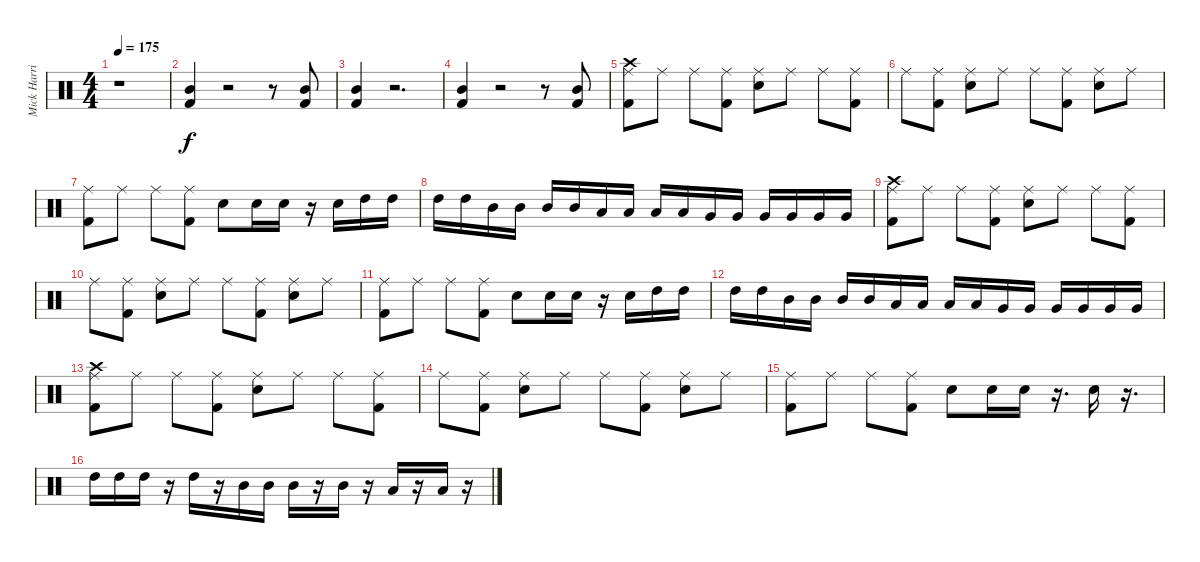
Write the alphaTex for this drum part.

\track ("Mick Harris (Drums)" "Mick Harri") {instrument percussion}
\staff {score}
\articulation defaults
\ts (4 4)
\tempo 175
\clef neutral
\ks c
r.1{dy f} |
("Mid Tom (hit)" "Kick (hit) 2").4 r.2 r.8 ("Mid Tom (hit)" "Kick (hit) 2").8 |
("Mid Tom (hit)" "Kick (hit) 2").4 r.2{d} |
("Mid Tom (hit)" "Kick (hit) 2").4 r.2 r.8 ("Mid Tom (hit)" "Kick (hit) 2").8 |
("Kick (hit) 2" "Crash high (hit)" "Ride (middle)").8 "Ride (middle)".8 "Ride (middle)".8 ("Kick (hit) 2" "Ride (middle)").8 ("Electric Snare (hit)" "Ride (middle)").8 "Ride (middle)".8 "Ride (middle)".8 ("Kick (hit) 2" "Ride (middle)").8 |
"Ride (middle)".8 ("Kick (hit) 2" "Ride (middle)").8 ("Electric Snare (hit)" "Ride (middle)").8 "Ride (middle)".8 "Ride (middle)".8 ("Kick (hit) 2" "Ride (middle)").8 ("Electric Snare (hit)" "Ride (middle)").8 "Ride (middle)".8 |
("Kick (hit) 2" "Ride (middle)").8 "Ride (middle)".8 "Ride (middle)".8 ("Kick (hit) 2" "Ride (middle)").8 "Electric Snare (hit)".8 "Electric Snare (hit)".16 "Electric Snare (hit)".16 r.16 "Electric Snare (hit)".16 "High Tom (hit)".16 "High Tom (hit)".16 |
"High Tom (hit)".16 "High Tom (hit)".16 "Mid Tom (hit)".16 "Mid Tom (hit)".16 "Mid Tom (hit)".16 "Mid Tom (hit)".16 "Low Tom (hit)".16 "Low Tom (hit)".16 "Low Tom (hit)".16 "Low Tom (hit)".16 "Very Low Tom (hit)".16 "Very Low Tom (hit)".16 "Very Low Tom (hit)".16 "Very Low Tom (hit)".16 "Very Low Tom (hit)".16 "Very Low Tom (hit)".16 |
("Kick (hit) 2" "Crash high (hit)" "Ride (middle)").8 "Ride (middle)".8 "Ride (middle)".8 ("Kick (hit) 2" "Ride (middle)").8 ("Electric Snare (hit)" "Ride (middle)").8 "Ride (middle)".8 "Ride (middle)".8 ("Kick (hit) 2" "Ride (middle)").8 |
"Ride (middle)".8 ("Kick (hit) 2" "Ride (middle)").8 ("Electric Snare (hit)" "Ride (middle)").8 "Ride (middle)".8 "Ride (middle)".8 ("Kick (hit) 2" "Ride (middle)").8 ("Electric Snare (hit)" "Ride (middle)").8 "Ride (middle)".8 |
("Kick (hit) 2" "Ride (middle)").8 "Ride (middle)".8 "Ride (middle)".8 ("Kick (hit) 2" "Ride (middle)").8 "Electric Snare (hit)".8 "Electric Snare (hit)".16 "Electric Snare (hit)".16 r.16 "Electric Snare (hit)".16 "High Tom (hit)".16 "High Tom (hit)".16 |
"High Tom (hit)".16 "High Tom (hit)".16 "Mid Tom (hit)".16 "Mid Tom (hit)".16 "Mid Tom (hit)".16 "Mid Tom (hit)".16 "Low Tom (hit)".16 "Low Tom (hit)".16 "Low Tom (hit)".16 "Low Tom (hit)".16 "Very Low Tom (hit)".16 "Very Low Tom (hit)".16 "Very Low Tom (hit)".16 "Very Low Tom (hit)".16 "Very Low Tom (hit)".16 "Very Low Tom (hit)".16 |
("Kick (hit) 2" "Crash high (hit)" "Ride (middle)").8 "Ride (middle)".8 "Ride (middle)".8 ("Kick (hit) 2" "Ride (middle)").8 ("Electric Snare (hit)" "Ride (middle)").8 "Ride (middle)".8 "Ride (middle)".8 ("Kick (hit) 2" "Ride (middle)").8 |
"Ride (middle)".8 ("Kick (hit) 2" "Ride (middle)").8 ("Electric Snare (hit)" "Ride (middle)").8 "Ride (middle)".8 "Ride (middle)".8 ("Kick (hit) 2" "Ride (middle)").8 ("Electric Snare (hit)" "Ride (middle)").8 "Ride (middle)".8 |
("Kick (hit) 2" "Ride (middle)").8 "Ride (middle)".8 "Ride (middle)".8 ("Kick (hit) 2" "Ride (middle)").8 "Electric Snare (hit)".8 "Electric Snare (hit)".16 "Electric Snare (hit)".16 r.16{d} "Electric Snare (hit)".16 r.16{d} |
"High Tom (hit)".16 "High Tom (hit)".16 "High Tom (hit)".16 r.16 "High Tom (hit)".16 r.16 "Mid Tom (hit)".16 "Mid Tom (hit)".16 "Mid Tom (hit)".16 r.16 "Mid Tom (hit)".16 r.16 "Low Tom (hit)".16 r.16 "Low Tom (hit)".16 r.16
